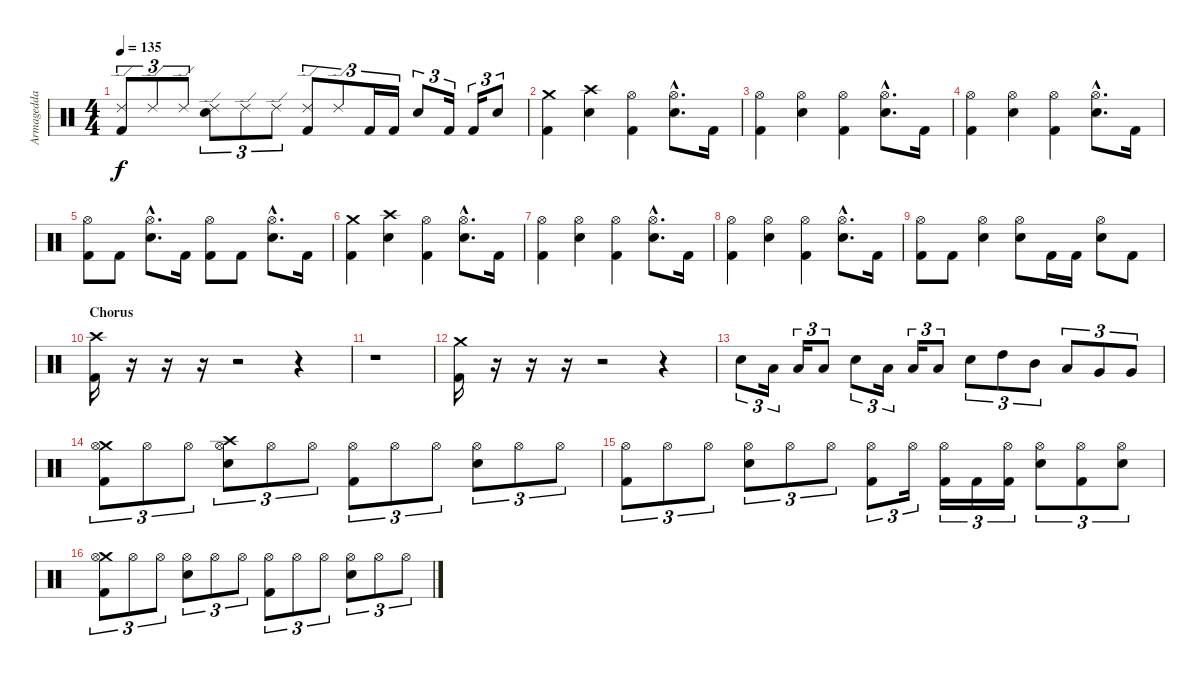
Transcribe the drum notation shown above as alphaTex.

\track ("Armagedda" "Armagedda") {instrument percussion}
\staff {score}
\articulation defaults
\ts (4 4)
\tempo 135
\clef neutral
\ks c
("Ride (edge) 2" "Kick (hit) 2").8{tu (3 2) dy f} "Ride (edge) 2".8{tu (3 2)} "Ride (edge) 2".8{tu (3 2)} ("Ride (edge) 2" "Electric Snare (hit)").8{tu (3 2)} "Ride (edge) 2".8{tu (3 2)} "Ride (edge) 2".8{tu (3 2)} ("Ride (edge) 2" "Kick (hit) 2").8{tu (3 2)} "Ride (edge) 2".8{tu (3 2)} "Kick (hit) 2".16{tu (3 2)} "Kick (hit) 2".16{tu (3 2)} "Electric Snare (hit)".8{tu (3 2)} "Kick (hit) 2".16{tu (3 2)} "Kick (hit) 2".16{tu (3 2)} "Electric Snare (hit)".8{tu (3 2)} |
("Crash medium (hit)" "Kick (hit) 2").4 ("Crash high (hit)" "Electric Snare (hit)").4 ("Hi-Hat (open)" "Kick (hit) 2").4 ("Hi-Hat (open)"{hac} "Electric Snare (hit)"{hac}).8{d} "Kick (hit) 2".16 |
("Hi-Hat (open)" "Kick (hit) 2").4 ("Hi-Hat (open)" "Electric Snare (hit)").4 ("Hi-Hat (open)" "Kick (hit) 2").4 ("Hi-Hat (open)"{hac} "Electric Snare (hit)"{hac}).8{d} "Kick (hit) 2".16 |
("Hi-Hat (open)" "Kick (hit) 2").4 ("Hi-Hat (open)" "Electric Snare (hit)").4 ("Hi-Hat (open)" "Kick (hit) 2").4 ("Hi-Hat (open)"{hac} "Electric Snare (hit)"{hac}).8{d} "Kick (hit) 2".16 |
("Hi-Hat (open)" "Kick (hit) 2").8 "Kick (hit) 2".8 ("Hi-Hat (open)"{hac} "Electric Snare (hit)"{hac}).8{d} "Kick (hit) 2".16 ("Hi-Hat (open)" "Kick (hit) 2").8 "Kick (hit) 2".8 ("Hi-Hat (open)"{hac} "Electric Snare (hit)"{hac}).8{d} "Kick (hit) 2".16 |
("Crash medium (hit)" "Kick (hit) 2").4 ("Crash high (hit)" "Electric Snare (hit)").4 ("Hi-Hat (open)" "Kick (hit) 2").4 ("Hi-Hat (open)"{hac} "Electric Snare (hit)"{hac}).8{d} "Kick (hit) 2".16 |
("Hi-Hat (open)" "Kick (hit) 2").4 ("Hi-Hat (open)" "Electric Snare (hit)").4 ("Hi-Hat (open)" "Kick (hit) 2").4 ("Hi-Hat (open)"{hac} "Electric Snare (hit)"{hac}).8{d} "Kick (hit) 2".16 |
("Hi-Hat (open)" "Kick (hit) 2").4 ("Hi-Hat (open)" "Electric Snare (hit)").4 ("Hi-Hat (open)" "Kick (hit) 2").4 ("Hi-Hat (open)"{hac} "Electric Snare (hit)"{hac}).8{d} "Kick (hit) 2".16 |
("Hi-Hat (open)" "Kick (hit) 2").8 "Kick (hit) 2".8 ("Hi-Hat (open)" "Electric Snare (hit)").4 ("Hi-Hat (open)" "Electric Snare (hit)").8 "Kick (hit) 2".16 "Kick (hit) 2".16 ("Hi-Hat (open)" "Electric Snare (hit)").8 "Kick (hit) 2".8 |
\section ("" "Chorus")
("Crash high (hit)" "Kick (hit) 2").16 r.16 r.16 r.16 r.2 r.4 |
r.1 |
("Crash medium (hit)" "Kick (hit) 2").16 r.16 r.16 r.16 r.2 r.4 |
"Electric Snare (hit)".8{tu (3 2)} "Low Tom (hit)".16{tu (3 2)} "Low Tom (hit)".16{tu (3 2)} "Low Tom (hit)".8{tu (3 2)} "Electric Snare (hit)".8{tu (3 2)} "Low Tom (hit)".16{tu (3 2)} "Low Tom (hit)".16{tu (3 2)} "Low Tom (hit)".8{tu (3 2)} "Electric Snare (hit)".8{tu (3 2)} "High Tom (hit)".8{tu (3 2)} "Mid Tom (hit)".8{tu (3 2)} "Low Tom (hit)".8{tu (3 2)} "Very Low Tom (hit)".8{tu (3 2)} "Very Low Tom (hit)".8{tu (3 2)} |
("Crash medium (hit)" "Hi-Hat (open)" "Kick (hit) 2").8{tu (3 2)} "Hi-Hat (open)".8{tu (3 2)} "Hi-Hat (open)".8{tu (3 2)} ("Crash high (hit)" "Hi-Hat (open)" "Electric Snare (hit)").8{tu (3 2)} "Hi-Hat (open)".8{tu (3 2)} "Hi-Hat (open)".8{tu (3 2)} ("Hi-Hat (open)" "Kick (hit) 2").8{tu (3 2)} "Hi-Hat (open)".8{tu (3 2)} "Hi-Hat (open)".8{tu (3 2)} ("Hi-Hat (open)" "Electric Snare (hit)").8{tu (3 2)} "Hi-Hat (open)".8{tu (3 2)} "Hi-Hat (open)".8{tu (3 2)} |
("Hi-Hat (open)" "Kick (hit) 2").8{tu (3 2)} "Hi-Hat (open)".8{tu (3 2)} "Hi-Hat (open)".8{tu (3 2)} ("Hi-Hat (open)" "Electric Snare (hit)").8{tu (3 2)} "Hi-Hat (open)".8{tu (3 2)} "Hi-Hat (open)".8{tu (3 2)} ("Hi-Hat (open)" "Kick (hit) 2").8{tu (3 2)} "Hi-Hat (open)".16{tu (3 2)} ("Hi-Hat (open)" "Kick (hit) 2").16{tu (3 2)} "Kick (hit) 2".16{tu (3 2)} ("Hi-Hat (open)" "Kick (hit) 2").16{tu (3 2)} ("Hi-Hat (open)" "Electric Snare (hit)").8{tu (3 2)} ("Hi-Hat (open)" "Kick (hit) 2").8{tu (3 2)} ("Hi-Hat (open)" "Electric Snare (hit)").8{tu (3 2)} |
("Crash medium (hit)" "Hi-Hat (open)" "Kick (hit) 2").8{tu (3 2)} "Hi-Hat (open)".8{tu (3 2)} "Hi-Hat (open)".8{tu (3 2)} ("Hi-Hat (open)" "Electric Snare (hit)").8{tu (3 2)} "Hi-Hat (open)".8{tu (3 2)} "Hi-Hat (open)".8{tu (3 2)} ("Hi-Hat (open)" "Kick (hit) 2").8{tu (3 2)} "Hi-Hat (open)".8{tu (3 2)} "Hi-Hat (open)".8{tu (3 2)} ("Hi-Hat (open)" "Electric Snare (hit)").8{tu (3 2)} "Hi-Hat (open)".8{tu (3 2)} "Hi-Hat (open)".8{tu (3 2)}
